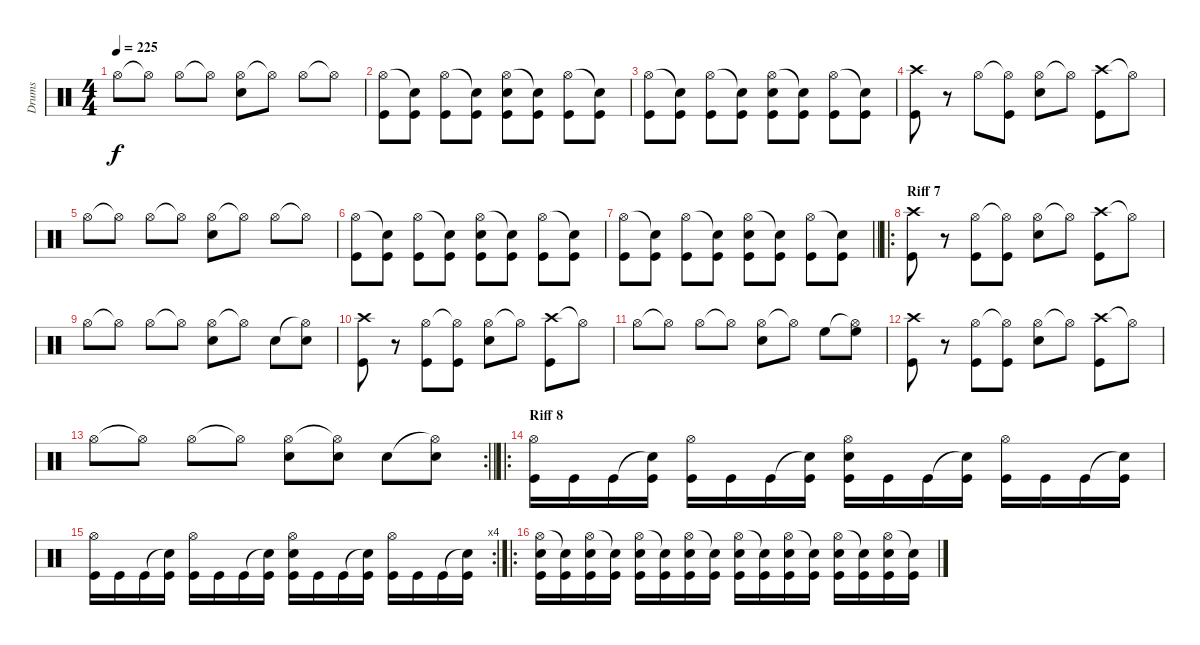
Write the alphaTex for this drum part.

\track ("Drums" "Drums") {instrument percussion}
\staff {score}
\articulation defaults
\ts (4 4)
\tempo 225
\clef neutral
\ks c "Hi-Hat (open)".8{dy f} "Hi-Hat (open)"{t}.8 "Hi-Hat (open)".8 "Hi-Hat (open)"{t}.8
("Hi-Hat (open)" "Electric Snare (hit)").8 "Hi-Hat (open)"{t}.8 "Hi-Hat (open)".8 "Hi-Hat (open)"{t}.8 |
("Hi-Hat (open)" "Kick (hit)").8 ("Snare (hit)"{t} "Kick (hit)").8 ("Hi-Hat (open)" "Kick (hit)").8 ("Snare (hit)"{t} "Kick (hit)").8 ("Hi-Hat (open)" "Electric Snare (hit)" "Kick (hit)").8 ("Snare (hit)"{t} "Kick (hit)").8 ("Hi-Hat (open)" "Kick (hit)").8 ("Snare (hit)"{t} "Kick (hit)").8 |
("Hi-Hat (open)" "Kick (hit)").8 ("Snare (hit)"{t} "Kick (hit)").8 ("Hi-Hat (open)" "Kick (hit)").8 ("Snare (hit)"{t} "Kick (hit)").8 ("Hi-Hat (open)" "Electric Snare (hit)" "Kick (hit)").8 ("Snare (hit)"{t} "Kick (hit)").8 ("Hi-Hat (open)" "Kick (hit)").8 ("Snare (hit)"{t} "Kick (hit)").8 |
("Crash high (hit)" "Kick (hit)").8 r.8 "Hi-Hat (open)".8 ("Hi-Hat (open)"{t} "Kick (hit)").8 ("Hi-Hat (open)" "Electric Snare (hit)").8 "Hi-Hat (open)"{t}.8 ("Crash high (hit)" "Kick (hit)").8 "Hi-Hat (open)"{t}.8 |
"Hi-Hat (open)".8 "Hi-Hat (open)"{t}.8 "Hi-Hat (open)".8 "Hi-Hat (open)"{t}.8 ("Hi-Hat (open)" "Electric Snare (hit)").8 "Hi-Hat (open)"{t}.8 "Hi-Hat (open)".8 "Hi-Hat (open)"{t}.8 |
("Hi-Hat (open)" "Kick (hit)").8 ("Snare (hit)"{t} "Kick (hit)").8 ("Hi-Hat (open)" "Kick (hit)").8 ("Snare (hit)"{t} "Kick (hit)").8 ("Hi-Hat (open)" "Electric Snare (hit)" "Kick (hit)").8 ("Snare (hit)"{t} "Kick (hit)").8 ("Hi-Hat (open)" "Kick (hit)").8 ("Snare (hit)"{t} "Kick (hit)").8 |
\barLineRight lightlight
("Hi-Hat (open)" "Kick (hit)").8 ("Snare (hit)"{t} "Kick (hit)").8 ("Hi-Hat (open)" "Kick (hit)").8 ("Snare (hit)"{t} "Kick (hit)").8 ("Hi-Hat (open)" "Electric Snare (hit)" "Kick (hit)").8 ("Snare (hit)"{t} "Kick (hit)").8 ("Hi-Hat (open)" "Kick (hit)").8 ("Snare (hit)"{t} "Kick (hit)").8 |
\ro
\section ("" "Riff 7")
("Crash high (hit)" "Kick (hit)").8 r.8 ("Hi-Hat (open)" "Kick (hit)").8 ("Hi-Hat (open)"{t} "Kick (hit)").8 ("Hi-Hat (open)" "Electric Snare (hit)").8 "Hi-Hat (open)"{t}.8 ("Crash high (hit)" "Kick (hit)").8 "Hi-Hat (open)"{t}.8 |
"Hi-Hat (open)".8 "Hi-Hat (open)"{t}.8 "Hi-Hat (open)".8 "Hi-Hat (open)"{t}.8 ("Hi-Hat (open)" "Electric Snare (hit)").8 "Hi-Hat (open)"{t}.8 "Electric Snare (hit)".8 ("Hi-Hat (open)"{t} "Electric Snare (hit)").8 |
("Crash high (hit)" "Kick (hit)").8 r.8 ("Hi-Hat (open)" "Kick (hit)").8 ("Hi-Hat (open)"{t} "Kick (hit)").8 ("Hi-Hat (open)" "Electric Snare (hit)").8 "Hi-Hat (open)"{t}.8 ("Crash high (hit)" "Kick (hit)").8 "Hi-Hat (open)"{t}.8 |
"Hi-Hat (open)".8 "Hi-Hat (open)"{t}.8 "Hi-Hat (open)".8 "Hi-Hat (open)"{t}.8 ("Hi-Hat (open)" "Electric Snare (hit)").8 "Hi-Hat (open)"{t}.8 "High Floor Tom (hit)".8 ("Hi-Hat (open)"{t} "High Floor Tom (hit)").8 |
("Crash high (hit)" "Kick (hit)").8 r.8 ("Hi-Hat (open)" "Kick (hit)").8 ("Hi-Hat (open)"{t} "Kick (hit)").8 ("Hi-Hat (open)" "Electric Snare (hit)").8 "Hi-Hat (open)"{t}.8 ("Crash high (hit)" "Kick (hit)").8 "Hi-Hat (open)"{t}.8 |
\rc 2
\barLineRight lightlight "Hi-Hat (open)".8 "Hi-Hat (open)"{t}.8 "Hi-Hat (open)".8 "Hi-Hat (open)"{t}.8
("Hi-Hat (open)" "Electric Snare (hit)").8 ("Hi-Hat (open)"{t} "Electric Snare (hit)").8 "Electric Snare (hit)".8 ("Hi-Hat (open)"{t} "Electric Snare (hit)").8 |
\ro
\section ("" "Riff 8")
("Hi-Hat (open)" "Kick (hit)").16 "Kick (hit)".16 "Kick (hit)".16 ("Snare (hit)"{t} "Kick (hit)").16 ("Hi-Hat (open)" "Kick (hit)").16 "Kick (hit)".16 "Kick (hit)".16 ("Snare (hit)"{t} "Kick (hit)").16 ("Hi-Hat (open)" "Electric Snare (hit)" "Kick (hit)").16 "Kick (hit)".16 "Kick (hit)".16 ("Snare (hit)"{t} "Kick (hit)").16 ("Hi-Hat (open)" "Kick (hit)").16 "Kick (hit)".16 "Kick (hit)".16 ("Snare (hit)"{t} "Kick (hit)").16 |
\rc 4
("Hi-Hat (open)" "Kick (hit)").16 "Kick (hit)".16 "Kick (hit)".16 ("Snare (hit)"{t} "Kick (hit)").16 ("Hi-Hat (open)" "Kick (hit)").16 "Kick (hit)".16 "Kick (hit)".16 ("Snare (hit)"{t} "Kick (hit)").16 ("Hi-Hat (open)" "Electric Snare (hit)" "Kick (hit)").16 "Kick (hit)".16 "Kick (hit)".16 ("Snare (hit)"{t} "Kick (hit)").16 ("Hi-Hat (open)" "Kick (hit)").16 "Kick (hit)".16 "Kick (hit)".16 ("Snare (hit)"{t} "Kick (hit)").16 |
\ro
("Hi-Hat (open)" "Electric Snare (hit)" "Kick (hit)").16 ("Snare (hit)"{t} "Kick (hit)").16 ("Hi-Hat (open)" "Electric Snare (hit)" "Kick (hit)").16 ("Snare (hit)"{t} "Kick (hit)").16 ("Hi-Hat (open)" "Electric Snare (hit)" "Kick (hit)").16 ("Snare (hit)"{t} "Kick (hit)").16 ("Hi-Hat (open)" "Electric Snare (hit)" "Kick (hit)").16 ("Snare (hit)"{t} "Kick (hit)").16 ("Hi-Hat (open)" "Electric Snare (hit)" "Kick (hit)").16 ("Snare (hit)"{t} "Kick (hit)").16 ("Hi-Hat (open)" "Electric Snare (hit)" "Kick (hit)").16 ("Snare (hit)"{t} "Kick (hit)").16 ("Hi-Hat (open)" "Electric Snare (hit)" "Kick (hit)").16 ("Snare (hit)"{t} "Kick (hit)").16 ("Hi-Hat (open)" "Electric Snare (hit)" "Kick (hit)").16 ("Snare (hit)"{t} "Kick (hit)").16
